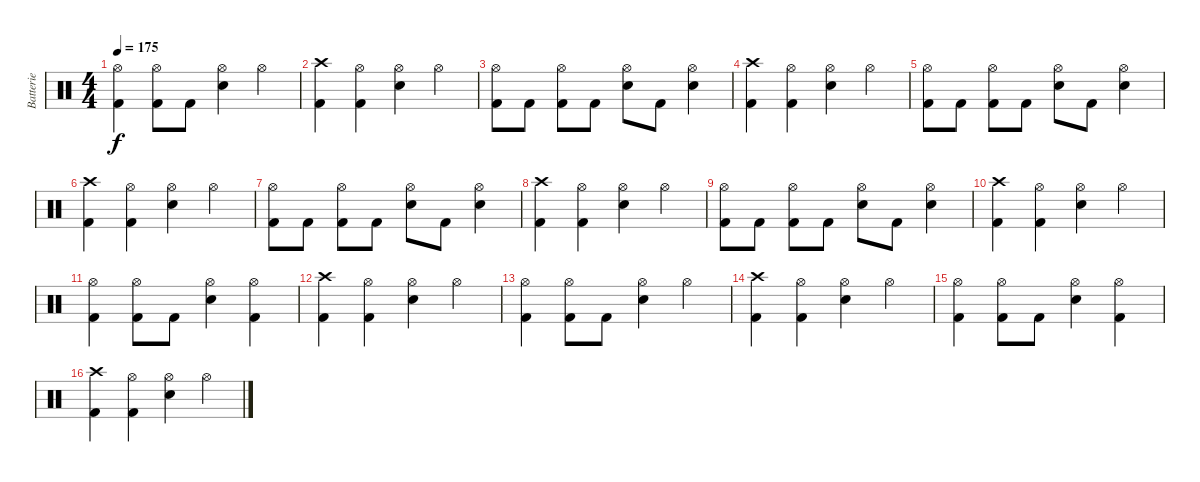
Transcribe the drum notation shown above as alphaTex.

\track ("Batterie" "Batterie") {instrument percussion}
\staff {score}
\articulation defaults
\ts (4 4)
\tempo 175
\clef neutral
\ks c
("Hi-Hat (open)" "Kick (hit) 2").4{dy f} ("Hi-Hat (open)" "Kick (hit) 2").8 "Kick (hit) 2".8 ("Hi-Hat (open)" "Electric Snare (hit)").4 "Hi-Hat (open)".4 |
("Crash high (hit)" "Kick (hit) 2").4 ("Hi-Hat (open)" "Kick (hit) 2").4 ("Hi-Hat (open)" "Electric Snare (hit)").4 "Hi-Hat (open)".4 |
("Hi-Hat (open)" "Kick (hit) 2").8 "Kick (hit) 2".8 ("Hi-Hat (open)" "Kick (hit) 2").8 "Kick (hit) 2".8 ("Hi-Hat (open)" "Electric Snare (hit)").8 "Kick (hit) 2".8 ("Hi-Hat (open)" "Electric Snare (hit)").4 |
("Crash high (hit)" "Kick (hit) 2").4 ("Hi-Hat (open)" "Kick (hit) 2").4 ("Hi-Hat (open)" "Electric Snare (hit)").4 "Hi-Hat (open)".4 |
("Hi-Hat (open)" "Kick (hit) 2").8 "Kick (hit) 2".8 ("Hi-Hat (open)" "Kick (hit) 2").8 "Kick (hit) 2".8 ("Hi-Hat (open)" "Electric Snare (hit)").8 "Kick (hit) 2".8 ("Hi-Hat (open)" "Electric Snare (hit)").4 |
("Crash high (hit)" "Kick (hit) 2").4 ("Hi-Hat (open)" "Kick (hit) 2").4 ("Hi-Hat (open)" "Electric Snare (hit)").4 "Hi-Hat (open)".4 |
("Hi-Hat (open)" "Kick (hit) 2").8 "Kick (hit) 2".8 ("Hi-Hat (open)" "Kick (hit) 2").8 "Kick (hit) 2".8 ("Hi-Hat (open)" "Electric Snare (hit)").8 "Kick (hit) 2".8 ("Hi-Hat (open)" "Electric Snare (hit)").4 |
("Crash high (hit)" "Kick (hit) 2").4 ("Hi-Hat (open)" "Kick (hit) 2").4 ("Hi-Hat (open)" "Electric Snare (hit)").4 "Hi-Hat (open)".4 |
("Hi-Hat (open)" "Kick (hit) 2").8 "Kick (hit) 2".8 ("Hi-Hat (open)" "Kick (hit) 2").8 "Kick (hit) 2".8 ("Hi-Hat (open)" "Electric Snare (hit)").8 "Kick (hit) 2".8 ("Hi-Hat (open)" "Electric Snare (hit)").4 |
("Crash high (hit)" "Kick (hit) 2").4 ("Hi-Hat (open)" "Kick (hit) 2").4 ("Hi-Hat (open)" "Electric Snare (hit)").4 "Hi-Hat (open)".4 |
("Hi-Hat (open)" "Kick (hit) 2").4 ("Hi-Hat (open)" "Kick (hit) 2").8 "Kick (hit) 2".8 ("Hi-Hat (open)" "Electric Snare (hit)").4 ("Hi-Hat (open)" "Kick (hit) 2").4 |
("Crash high (hit)" "Kick (hit) 2").4 ("Hi-Hat (open)" "Kick (hit) 2").4 ("Hi-Hat (open)" "Electric Snare (hit)").4 "Hi-Hat (open)".4 |
("Hi-Hat (open)" "Kick (hit) 2").4 ("Hi-Hat (open)" "Kick (hit) 2").8 "Kick (hit) 2".8 ("Hi-Hat (open)" "Electric Snare (hit)").4 "Hi-Hat (open)".4 |
("Crash high (hit)" "Kick (hit) 2").4 ("Hi-Hat (open)" "Kick (hit) 2").4 ("Hi-Hat (open)" "Electric Snare (hit)").4 "Hi-Hat (open)".4 |
("Hi-Hat (open)" "Kick (hit) 2").4 ("Hi-Hat (open)" "Kick (hit) 2").8 "Kick (hit) 2".8 ("Hi-Hat (open)" "Electric Snare (hit)").4 ("Hi-Hat (open)" "Kick (hit) 2").4 |
("Crash high (hit)" "Kick (hit) 2").4 ("Hi-Hat (open)" "Kick (hit) 2").4 ("Hi-Hat (open)" "Electric Snare (hit)").4 "Hi-Hat (open)".4
